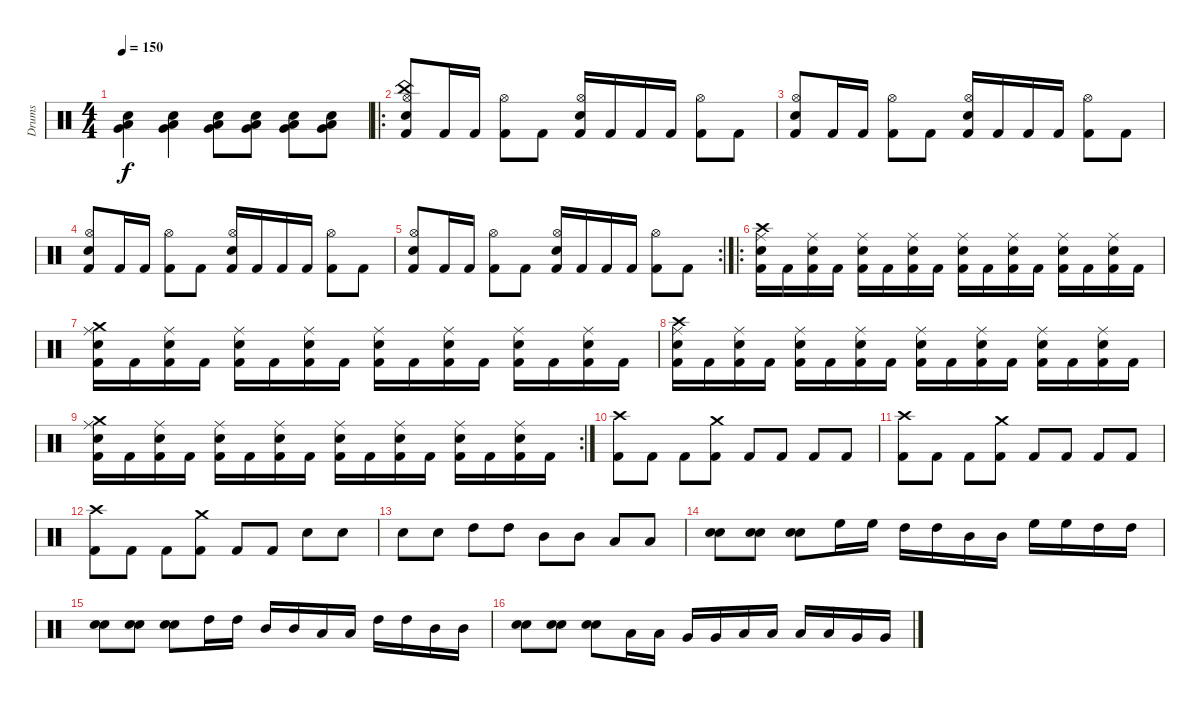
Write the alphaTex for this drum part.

\track ("Drums" "Drums") {instrument percussion}
\staff {score}
\articulation defaults
\ts (4 4)
\tempo 150
\clef neutral
\ks c
("Low Floor Tom (hit)" "Very Low Tom (hit)" "Snare (hit) 2").4{dy f} ("Low Floor Tom (hit)" "Very Low Tom (hit)" "Snare (hit) 2").4 ("Low Floor Tom (hit)" "Very Low Tom (hit)" "Snare (hit) 2").8 ("Low Floor Tom (hit)" "Very Low Tom (hit)" "Snare (hit) 2").8 ("Low Floor Tom (hit)" "Very Low Tom (hit)" "Snare (hit) 2").8 ("Low Floor Tom (hit)" "Very Low Tom (hit)" "Snare (hit) 2").8 |
\ro
("China (hit)" "Hi-Hat (open)" "Snare (hit) 2" "Kick (hit) 2").8 "Kick (hit) 2".16 "Kick (hit) 2".16 ("Hi-Hat (open)" "Kick (hit) 2").8 "Kick (hit) 2".8 ("Hi-Hat (open)" "Snare (hit) 2" "Kick (hit) 2").16 "Kick (hit) 2".16 "Kick (hit) 2".16 "Kick (hit) 2".16 ("Hi-Hat (open)" "Kick (hit) 2").8 "Kick (hit) 2".8 |
("Hi-Hat (open)" "Snare (hit) 2" "Kick (hit) 2").8 "Kick (hit) 2".16 "Kick (hit) 2".16 ("Hi-Hat (open)" "Kick (hit) 2").8 "Kick (hit) 2".8 ("Hi-Hat (open)" "Snare (hit) 2" "Kick (hit) 2").16 "Kick (hit) 2".16 "Kick (hit) 2".16 "Kick (hit) 2".16 ("Hi-Hat (open)" "Kick (hit) 2").8 "Kick (hit) 2".8 |
("Hi-Hat (open)" "Snare (hit) 2" "Kick (hit) 2").8 "Kick (hit) 2".16 "Kick (hit) 2".16 ("Hi-Hat (open)" "Kick (hit) 2").8 "Kick (hit) 2".8 ("Hi-Hat (open)" "Snare (hit) 2" "Kick (hit) 2").16 "Kick (hit) 2".16 "Kick (hit) 2".16 "Kick (hit) 2".16 ("Hi-Hat (open)" "Kick (hit) 2").8 "Kick (hit) 2".8 |
\rc 2
("Hi-Hat (open)" "Snare (hit) 2" "Kick (hit) 2").8 "Kick (hit) 2".16 "Kick (hit) 2".16 ("Hi-Hat (open)" "Kick (hit) 2").8 "Kick (hit) 2".8 ("Hi-Hat (open)" "Snare (hit) 2" "Kick (hit) 2").16 "Kick (hit) 2".16 "Kick (hit) 2".16 "Kick (hit) 2".16 ("Hi-Hat (open)" "Kick (hit) 2").8 "Kick (hit) 2".8 |
\ro
("Crash high (hit)" "Ride (middle)" "Snare (hit) 2" "Kick (hit) 2").16 "Kick (hit) 2".16 ("Ride (middle)" "Snare (hit) 2" "Kick (hit) 2").16 "Kick (hit) 2".16 ("Ride (middle)" "Snare (hit) 2" "Kick (hit) 2").16 "Kick (hit) 2".16 ("Ride (middle)" "Snare (hit) 2" "Kick (hit) 2").16 "Kick (hit) 2".16 ("Ride (middle)" "Snare (hit) 2" "Kick (hit) 2").16 "Kick (hit) 2".16 ("Ride (middle)" "Snare (hit) 2" "Kick (hit) 2").16 "Kick (hit) 2".16 ("Ride (middle)" "Snare (hit) 2" "Kick (hit) 2").16 "Kick (hit) 2".16 ("Ride (middle)" "Snare (hit) 2" "Kick (hit) 2").16 "Kick (hit) 2".16 |
("Crash medium (hit)" "Ride (middle)" "Snare (hit) 2" "Kick (hit) 2").16 "Kick (hit) 2".16 ("Ride (middle)" "Snare (hit) 2" "Kick (hit) 2").16 "Kick (hit) 2".16 ("Ride (middle)" "Snare (hit) 2" "Kick (hit) 2").16 "Kick (hit) 2".16 ("Ride (middle)" "Snare (hit) 2" "Kick (hit) 2").16 "Kick (hit) 2".16 ("Ride (middle)" "Snare (hit) 2" "Kick (hit) 2").16 "Kick (hit) 2".16 ("Ride (middle)" "Snare (hit) 2" "Kick (hit) 2").16 "Kick (hit) 2".16 ("Ride (middle)" "Snare (hit) 2" "Kick (hit) 2").16 "Kick (hit) 2".16 ("Ride (middle)" "Snare (hit) 2" "Kick (hit) 2").16 "Kick (hit) 2".16 |
("Crash high (hit)" "Ride (middle)" "Snare (hit) 2" "Kick (hit) 2").16 "Kick (hit) 2".16 ("Ride (middle)" "Snare (hit) 2" "Kick (hit) 2").16 "Kick (hit) 2".16 ("Ride (middle)" "Snare (hit) 2" "Kick (hit) 2").16 "Kick (hit) 2".16 ("Ride (middle)" "Snare (hit) 2" "Kick (hit) 2").16 "Kick (hit) 2".16 ("Ride (middle)" "Snare (hit) 2" "Kick (hit) 2").16 "Kick (hit) 2".16 ("Ride (middle)" "Snare (hit) 2" "Kick (hit) 2").16 "Kick (hit) 2".16 ("Ride (middle)" "Snare (hit) 2" "Kick (hit) 2").16 "Kick (hit) 2".16 ("Ride (middle)" "Snare (hit) 2" "Kick (hit) 2").16 "Kick (hit) 2".16 |
\rc 2
("Crash medium (hit)" "Ride (middle)" "Snare (hit) 2" "Kick (hit) 2").16 "Kick (hit) 2".16 ("Ride (middle)" "Snare (hit) 2" "Kick (hit) 2").16 "Kick (hit) 2".16 ("Ride (middle)" "Snare (hit) 2" "Kick (hit) 2").16 "Kick (hit) 2".16 ("Ride (middle)" "Snare (hit) 2" "Kick (hit) 2").16 "Kick (hit) 2".16 ("Ride (middle)" "Snare (hit) 2" "Kick (hit) 2").16 "Kick (hit) 2".16 ("Ride (middle)" "Snare (hit) 2" "Kick (hit) 2").16 "Kick (hit) 2".16 ("Ride (middle)" "Snare (hit) 2" "Kick (hit) 2").16 "Kick (hit) 2".16 ("Ride (middle)" "Snare (hit) 2" "Kick (hit) 2").16 "Kick (hit) 2".16 |
("Crash high (hit)" "Kick (hit) 2").8 "Kick (hit) 2".8 "Kick (hit) 2".8 ("Crash medium (hit)" "Kick (hit) 2").8 "Kick (hit) 2".8 "Kick (hit) 2".8 "Kick (hit) 2".8 "Kick (hit) 2".8 |
("Crash high (hit)" "Kick (hit) 2").8 "Kick (hit) 2".8 "Kick (hit) 2".8 ("Crash medium (hit)" "Kick (hit) 2").8 "Kick (hit) 2".8 "Kick (hit) 2".8 "Kick (hit) 2".8 "Kick (hit) 2".8 |
("Crash high (hit)" "Kick (hit) 2").8 "Kick (hit) 2".8 "Kick (hit) 2".8 ("Crash medium (hit)" "Kick (hit) 2").8 "Kick (hit) 2".8 "Kick (hit) 2".8 "Snare (hit) 2".8 "Snare (hit) 2".8 |
"Snare (hit) 2".8 "Snare (hit) 2".8 "High Tom (hit)".8 "High Tom (hit)".8 "Mid Tom (hit)".8 "Mid Tom (hit)".8 "Low Tom (hit)".8 "Low Tom (hit)".8 |
("Snare (hit) 2" "Snare (hit) 2").8 ("Snare (hit) 2" "Snare (hit) 2").8 ("Snare (hit) 2" "Snare (hit) 2").8 "High Floor Tom (hit)".16 "High Floor Tom (hit)".16 "High Tom (hit)".16 "High Tom (hit)".16 "Mid Tom (hit)".16 "Mid Tom (hit)".16 "High Floor Tom (hit)".16 "High Floor Tom (hit)".16 "High Tom (hit)".16 "High Tom (hit)".16 |
("Snare (hit) 2" "Snare (hit) 2").8 ("Snare (hit) 2" "Snare (hit) 2").8 ("Snare (hit) 2" "Snare (hit) 2").8 "High Tom (hit)".16 "High Tom (hit)".16 "Mid Tom (hit)".16 "Mid Tom (hit)".16 "Low Tom (hit)".16 "Low Tom (hit)".16 "High Tom (hit)".16 "High Tom (hit)".16 "Mid Tom (hit)".16 "Mid Tom (hit)".16 |
("Snare (hit) 2" "Snare (hit) 2").8 ("Snare (hit) 2" "Snare (hit) 2").8 ("Snare (hit) 2" "Snare (hit) 2").8 "Low Tom (hit)".16 "Low Tom (hit)".16 "Very Low Tom (hit)".16 "Very Low Tom (hit)".16 "Low Floor Tom (hit)".16 "Low Floor Tom (hit)".16 "Low Tom (hit)".16 "Low Tom (hit)".16 "Very Low Tom (hit)".16 "Very Low Tom (hit)".16
